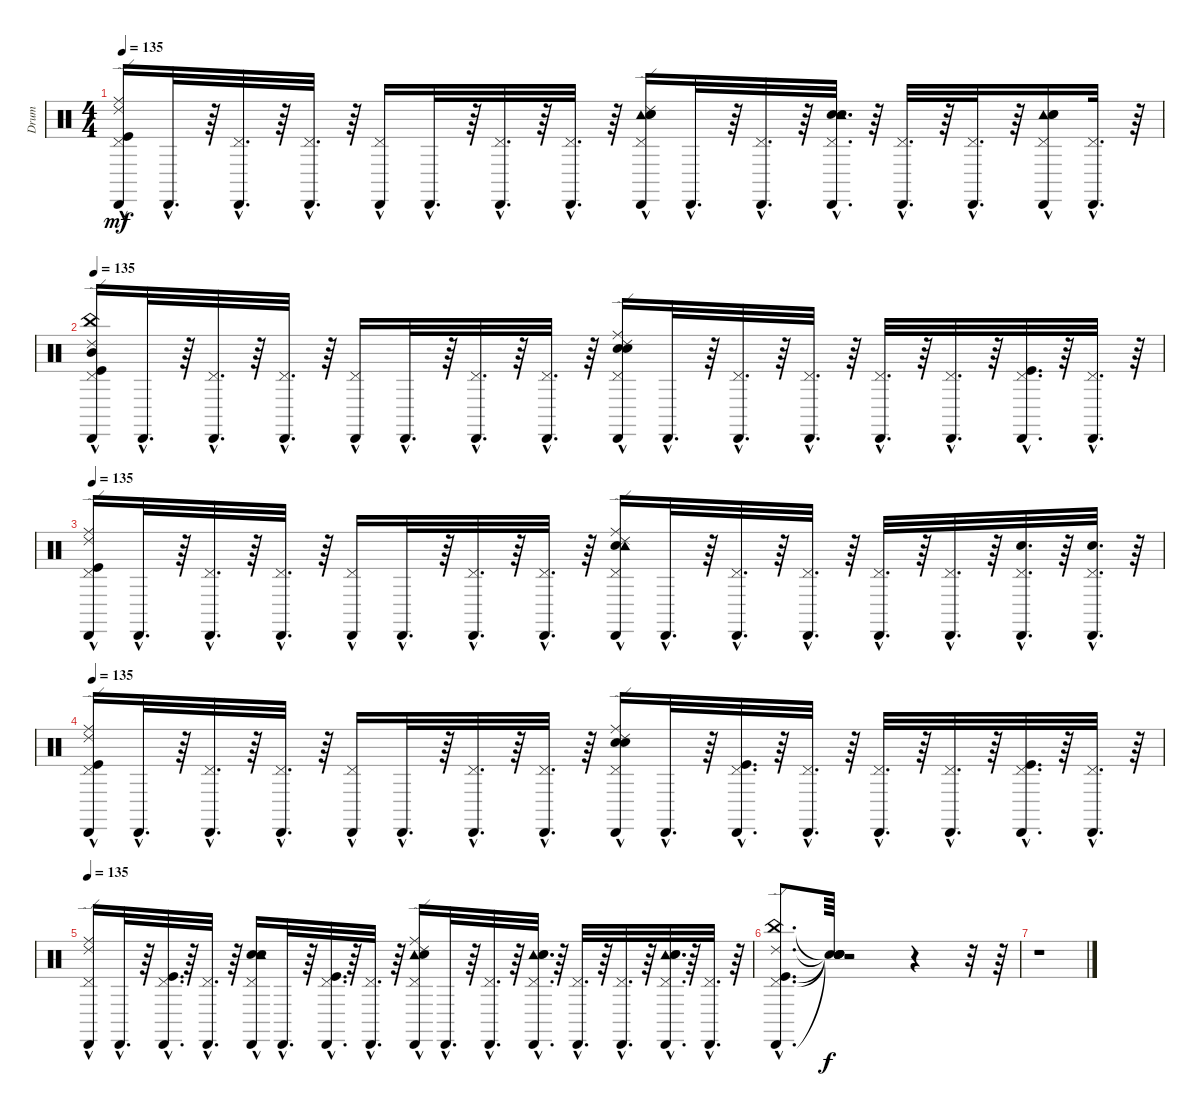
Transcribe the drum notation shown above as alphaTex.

\track ("Drum" "Drum") {instrument percussion}
\staff {score}
\articulation defaults
\ts (4 4)
\tempo 135
\clef neutral
\ks c
("Cabasa (hit)"{hac} "Pedal Hi-Hat (hit)"{hac} "Ride (edge) 2"{hac} "Kick (hit)"{hac} "Ride (middle)").16{dy mf} "Cabasa (hit)"{hac}.32{d} r.64 ("Cabasa (hit)"{hac} "Pedal Hi-Hat (hit)"{hac}).32{d} r.64 ("Cabasa (hit)"{hac} "Pedal Hi-Hat (hit)"{hac}).32{d} r.64 ("Cabasa (hit)"{hac} "Pedal Hi-Hat (hit)"{hac}).16 "Cabasa (hit)"{hac}.32{d} r.64 ("Cabasa (hit)"{hac} "Pedal Hi-Hat (hit)"{hac}).32{d} r.64 ("Cabasa (hit)"{hac} "Pedal Hi-Hat (hit)"{hac}).32{d} r.64 ("Cabasa (hit)"{hac} "Tambourine (hit)"{hac} "Ride (edge) 2"{hac} "Snare (hit) 2"{hac} "Electric Snare (hit)"{hac} "Pedal Hi-Hat (hit)"{hac}).16 "Cabasa (hit)"{hac}.32{d} r.64 ("Cabasa (hit)"{hac} "Pedal Hi-Hat (hit)"{hac}).32{d} r.64 ("Cabasa (hit)"{hac} "Pedal Hi-Hat (hit)"{hac} "Snare (hit) 2"{hac} "Electric Snare (hit)"{hac} "Tambourine (hit)"{hac}).32{d} r.64 ("Cabasa (hit)"{hac} "Pedal Hi-Hat (hit)"{hac}).32{d} r.64 ("Cabasa (hit)"{hac} "Pedal Hi-Hat (hit)"{hac}).32{d} r.64 ("Cabasa (hit)"{hac} "Pedal Hi-Hat (hit)"{hac} "Tambourine (hit)" "Electric Snare (hit)"{hac} "Snare (hit) 2"{hac}).16 ("Cabasa (hit)"{hac} "Pedal Hi-Hat (hit)"{hac}).32{d} r.64 |
\tempo 135
("Cabasa (hit)"{hac} "Mid Tom (hit)"{hac} "China (hit)"{hac} "Pedal Hi-Hat (hit)"{hac} "Kick (hit)"{hac} "Ride (edge) 2"{hac}).16 "Cabasa (hit)"{hac}.32{d} r.64 ("Cabasa (hit)"{hac} "Pedal Hi-Hat (hit)"{hac}).32{d} r.64 ("Cabasa (hit)"{hac} "Pedal Hi-Hat (hit)"{hac}).32{d} r.64 ("Cabasa (hit)"{hac} "Pedal Hi-Hat (hit)"{hac}).16 "Cabasa (hit)"{hac}.32{d} r.64 ("Cabasa (hit)"{hac} "Pedal Hi-Hat (hit)"{hac}).32{d} r.64 ("Cabasa (hit)"{hac} "Pedal Hi-Hat (hit)"{hac}).32{d} r.64 ("Cabasa (hit)"{hac} "Ride (middle)"{hac} "Snare (hit) 2"{hac} "Electric Snare (hit)" "Pedal Hi-Hat (hit)"{hac} "Ride (edge) 2"{hac}).16 "Cabasa (hit)"{hac}.32{d} r.64 ("Cabasa (hit)"{hac} "Pedal Hi-Hat (hit)"{hac}).32{d} r.64 ("Cabasa (hit)"{hac} "Pedal Hi-Hat (hit)"{hac}).32{d} r.64 ("Cabasa (hit)"{hac} "Pedal Hi-Hat (hit)"{hac}).32{d} r.64 ("Cabasa (hit)"{hac} "Pedal Hi-Hat (hit)"{hac}).32{d} r.64 ("Cabasa (hit)"{hac} "Pedal Hi-Hat (hit)"{hac} "Kick (hit)"{hac}).32{d} r.64 ("Cabasa (hit)"{hac} "Pedal Hi-Hat (hit)"{hac}).32{d} r.64 |
\tempo 135
("Kick (hit)"{hac} "Ride (middle)"{hac} "Cabasa (hit)"{hac} "Pedal Hi-Hat (hit)"{hac} "Ride (edge) 2"{hac}).16 "Cabasa (hit)"{hac}.32{d} r.64 ("Cabasa (hit)"{hac} "Pedal Hi-Hat (hit)"{hac}).32{d} r.64 ("Pedal Hi-Hat (hit)"{hac} "Cabasa (hit)"{hac}).32{d} r.64 ("Cabasa (hit)"{hac} "Pedal Hi-Hat (hit)"{hac}).16 "Cabasa (hit)"{hac}.32{d} r.64 ("Cabasa (hit)"{hac} "Pedal Hi-Hat (hit)"{hac}).32{d} r.64 ("Cabasa (hit)"{hac} "Pedal Hi-Hat (hit)"{hac}).32{d} r.64 ("Snare (hit) 2"{hac} "Pedal Hi-Hat (hit)"{hac} "Cabasa (hit)"{hac} "Ride (middle)"{hac} "Ride (edge) 2"{hac} "Tambourine (hit)").16 "Cabasa (hit)"{hac}.32{d} r.64 ("Pedal Hi-Hat (hit)"{hac} "Cabasa (hit)"{hac}).32{d} r.64 ("Pedal Hi-Hat (hit)"{hac} "Cabasa (hit)"{hac}).32{d} r.64 ("Cabasa (hit)"{hac} "Pedal Hi-Hat (hit)"{hac}).32{d} r.64 ("Pedal Hi-Hat (hit)"{hac} "Cabasa (hit)"{hac}).32{d} r.64 ("Cabasa (hit)"{hac} "Pedal Hi-Hat (hit)"{hac} "Snare (hit) 2"{hac}).32{d} r.64 ("Snare (hit) 2"{hac} "Pedal Hi-Hat (hit)"{hac} "Cabasa (hit)"{hac}).32{d} r.64 |
\tempo 135
("Ride (middle)"{hac} "Cabasa (hit)"{hac} "Ride (edge) 2"{hac} "Kick (hit)"{hac} "Pedal Hi-Hat (hit)"{hac}).16 "Cabasa (hit)"{hac}.32{d} r.64 ("Pedal Hi-Hat (hit)"{hac} "Cabasa (hit)"{hac}).32{d} r.64 ("Pedal Hi-Hat (hit)"{hac} "Cabasa (hit)"{hac}).32{d} r.64 ("Pedal Hi-Hat (hit)"{hac} "Cabasa (hit)"{hac}).16 "Cabasa (hit)"{hac}.32{d} r.64 ("Pedal Hi-Hat (hit)"{hac} "Cabasa (hit)"{hac}).32{d} r.64 ("Pedal Hi-Hat (hit)"{hac} "Cabasa (hit)"{hac}).32{d} r.64 ("Pedal Hi-Hat (hit)"{hac} "Ride (edge) 2"{hac} "Electric Snare (hit)"{hac} "Ride (middle)"{hac} "Cabasa (hit)"{hac} "Snare (hit) 2"{hac}).16 "Cabasa (hit)"{hac}.32{d} r.64 ("Cabasa (hit)"{hac} "Pedal Hi-Hat (hit)"{hac} "Kick (hit)"{hac}).32{d} r.64 ("Pedal Hi-Hat (hit)"{hac} "Cabasa (hit)"{hac}).32{d} r.64 ("Pedal Hi-Hat (hit)"{hac} "Cabasa (hit)"{hac}).32{d} r.64 ("Pedal Hi-Hat (hit)"{hac} "Cabasa (hit)"{hac}).32{d} r.64 ("Kick (hit)"{hac} "Pedal Hi-Hat (hit)"{hac} "Cabasa (hit)"{hac}).32{d} r.64 ("Cabasa (hit)"{hac} "Pedal Hi-Hat (hit)"{hac}).32{d} r.64 |
\tempo 135
("Ride (edge) 2"{hac} "Pedal Hi-Hat (hit)"{hac} "Cabasa (hit)"{hac} "Ride (middle)"{hac}).16 "Cabasa (hit)"{hac}.32{d} r.64 ("Cabasa (hit)"{hac} "Pedal Hi-Hat (hit)"{hac} "Kick (hit)"{hac}).32{d} r.64 ("Pedal Hi-Hat (hit)"{hac} "Cabasa (hit)"{hac}).32{d} r.64 ("Snare (hit) 2"{hac} "Electric Snare (hit)" "Cabasa (hit)"{hac} "Tambourine (hit)"{hac} "Pedal Hi-Hat (hit)"{hac}).16 "Cabasa (hit)"{hac}.32{d} r.64 ("Kick (hit)"{hac} "Pedal Hi-Hat (hit)"{hac} "Cabasa (hit)"{hac}).32{d} r.64 ("Pedal Hi-Hat (hit)"{hac} "Cabasa (hit)"{hac}).32{d} r.64 ("Tambourine (hit)"{hac} "Ride (edge) 2"{hac} "Ride (middle)"{hac} "Cabasa (hit)"{hac} "Pedal Hi-Hat (hit)"{hac} "Snare (hit) 2"{hac}).16 "Cabasa (hit)"{hac}.32{d} r.64 ("Pedal Hi-Hat (hit)"{hac} "Cabasa (hit)"{hac}).32{d} r.64 ("Pedal Hi-Hat (hit)"{hac} "Tambourine (hit)"{hac} "Electric Snare (hit)"{hac} "Cabasa (hit)"{hac} "Snare (hit) 2"{hac}).32{d} r.64 ("Pedal Hi-Hat (hit)"{hac} "Cabasa (hit)"{hac}).32{d} r.64 ("Pedal Hi-Hat (hit)"{hac} "Cabasa (hit)"{hac}).32{d} r.64 ("Tambourine (hit)"{hac} "Pedal Hi-Hat (hit)"{hac} "Snare (hit) 2"{hac} "Cabasa (hit)"{hac} "Electric Snare (hit)"{hac}).32{d} r.64 ("Cabasa (hit)"{hac} "Pedal Hi-Hat (hit)"{hac}).32{d} r.64 |
("Cabasa (hit)"{hac} "China (hit)"{hac} "Kick (hit)"{hac} "Ride (edge) 2"{hac} "Pedal Hi-Hat (hit)"{hac}).8{d} ("Snare (hit)"{t} "Snare (hit)"{t} "Snare (hit)"{t} "Snare (hit)"{t} "Snare (hit)"{t}).64{dy f} r.2 r.4 r.32 r.64 |
r.1
